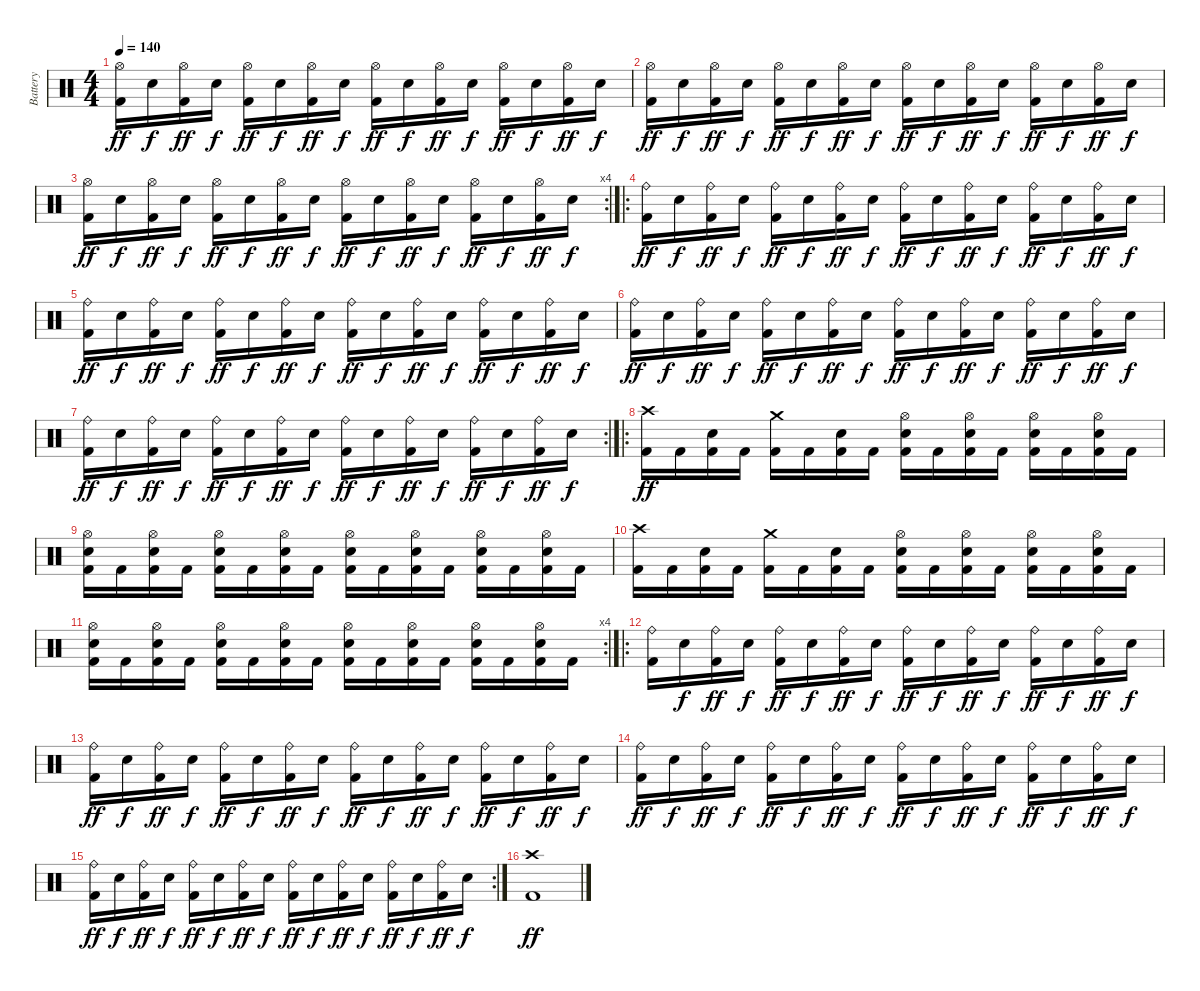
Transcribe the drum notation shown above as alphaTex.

\track ("Battery" "Battery") {instrument percussion}
\staff {score}
\articulation defaults
\ts (4 4)
\tempo 140
\clef neutral
\ks c
("Hi-Hat (open)" "Kick (hit) 2").16{dy ff} "Snare (hit) 2".16{dy f} ("Hi-Hat (open)" "Kick (hit) 2").16{dy ff} "Snare (hit) 2".16{dy f} ("Hi-Hat (open)" "Kick (hit) 2").16{dy ff} "Snare (hit) 2".16{dy f} ("Hi-Hat (open)" "Kick (hit) 2").16{dy ff} "Snare (hit) 2".16{dy f} ("Hi-Hat (open)" "Kick (hit) 2").16{dy ff} "Snare (hit) 2".16{dy f} ("Hi-Hat (open)" "Kick (hit) 2").16{dy ff} "Snare (hit) 2".16{dy f} ("Hi-Hat (open)" "Kick (hit) 2").16{dy ff} "Snare (hit) 2".16{dy f} ("Hi-Hat (open)" "Kick (hit) 2").16{dy ff} "Snare (hit) 2".16{dy f} |
("Hi-Hat (open)" "Kick (hit) 2").16{dy ff} "Snare (hit) 2".16{dy f} ("Hi-Hat (open)" "Kick (hit) 2").16{dy ff} "Snare (hit) 2".16{dy f} ("Hi-Hat (open)" "Kick (hit) 2").16{dy ff} "Snare (hit) 2".16{dy f} ("Hi-Hat (open)" "Kick (hit) 2").16{dy ff} "Snare (hit) 2".16{dy f} ("Hi-Hat (open)" "Kick (hit) 2").16{dy ff} "Snare (hit) 2".16{dy f} ("Hi-Hat (open)" "Kick (hit) 2").16{dy ff} "Snare (hit) 2".16{dy f} ("Hi-Hat (open)" "Kick (hit) 2").16{dy ff} "Snare (hit) 2".16{dy f} ("Hi-Hat (open)" "Kick (hit) 2").16{dy ff} "Snare (hit) 2".16{dy f} |
\rc 4
("Hi-Hat (open)" "Kick (hit) 2").16{dy ff} "Snare (hit) 2".16{dy f} ("Hi-Hat (open)" "Kick (hit) 2").16{dy ff} "Snare (hit) 2".16{dy f} ("Hi-Hat (open)" "Kick (hit) 2").16{dy ff} "Snare (hit) 2".16{dy f} ("Hi-Hat (open)" "Kick (hit) 2").16{dy ff} "Snare (hit) 2".16{dy f} ("Hi-Hat (open)" "Kick (hit) 2").16{dy ff} "Snare (hit) 2".16{dy f} ("Hi-Hat (open)" "Kick (hit) 2").16{dy ff} "Snare (hit) 2".16{dy f} ("Hi-Hat (open)" "Kick (hit) 2").16{dy ff} "Snare (hit) 2".16{dy f} ("Hi-Hat (open)" "Kick (hit) 2").16{dy ff} "Snare (hit) 2".16{dy f} |
\ro
("Ride (bell)" "Kick (hit) 2").16{dy ff} "Snare (hit) 2".16{dy f} ("Ride (bell)" "Kick (hit) 2").16{dy ff} "Snare (hit) 2".16{dy f} ("Ride (bell)" "Kick (hit) 2").16{dy ff} "Snare (hit) 2".16{dy f} ("Ride (bell)" "Kick (hit) 2").16{dy ff} "Snare (hit) 2".16{dy f} ("Ride (bell)" "Kick (hit) 2").16{dy ff} "Snare (hit) 2".16{dy f} ("Ride (bell)" "Kick (hit) 2").16{dy ff} "Snare (hit) 2".16{dy f} ("Ride (bell)" "Kick (hit) 2").16{dy ff} "Snare (hit) 2".16{dy f} ("Ride (bell)" "Kick (hit) 2").16{dy ff} "Snare (hit) 2".16{dy f} |
("Ride (bell)" "Kick (hit) 2").16{dy ff} "Snare (hit) 2".16{dy f} ("Ride (bell)" "Kick (hit) 2").16{dy ff} "Snare (hit) 2".16{dy f} ("Ride (bell)" "Kick (hit) 2").16{dy ff} "Snare (hit) 2".16{dy f} ("Ride (bell)" "Kick (hit) 2").16{dy ff} "Snare (hit) 2".16{dy f} ("Ride (bell)" "Kick (hit) 2").16{dy ff} "Snare (hit) 2".16{dy f} ("Ride (bell)" "Kick (hit) 2").16{dy ff} "Snare (hit) 2".16{dy f} ("Ride (bell)" "Kick (hit) 2").16{dy ff} "Snare (hit) 2".16{dy f} ("Ride (bell)" "Kick (hit) 2").16{dy ff} "Snare (hit) 2".16{dy f} |
("Ride (bell)" "Kick (hit) 2").16{dy ff} "Snare (hit) 2".16{dy f} ("Ride (bell)" "Kick (hit) 2").16{dy ff} "Snare (hit) 2".16{dy f} ("Ride (bell)" "Kick (hit) 2").16{dy ff} "Snare (hit) 2".16{dy f} ("Ride (bell)" "Kick (hit) 2").16{dy ff} "Snare (hit) 2".16{dy f} ("Ride (bell)" "Kick (hit) 2").16{dy ff} "Snare (hit) 2".16{dy f} ("Ride (bell)" "Kick (hit) 2").16{dy ff} "Snare (hit) 2".16{dy f} ("Ride (bell)" "Kick (hit) 2").16{dy ff} "Snare (hit) 2".16{dy f} ("Ride (bell)" "Kick (hit) 2").16{dy ff} "Snare (hit) 2".16{dy f} |
\rc 2
("Ride (bell)" "Kick (hit) 2").16{dy ff} "Snare (hit) 2".16{dy f} ("Ride (bell)" "Kick (hit) 2").16{dy ff} "Snare (hit) 2".16{dy f} ("Ride (bell)" "Kick (hit) 2").16{dy ff} "Snare (hit) 2".16{dy f} ("Ride (bell)" "Kick (hit) 2").16{dy ff} "Snare (hit) 2".16{dy f} ("Ride (bell)" "Kick (hit) 2").16{dy ff} "Snare (hit) 2".16{dy f} ("Ride (bell)" "Kick (hit) 2").16{dy ff} "Snare (hit) 2".16{dy f} ("Ride (bell)" "Kick (hit) 2").16{dy ff} "Snare (hit) 2".16{dy f} ("Ride (bell)" "Kick (hit) 2").16{dy ff} "Snare (hit) 2".16{dy f} |
\ro
("Crash high (hit)" "Kick (hit) 2").16{dy ff} "Kick (hit) 2".16 ("Snare (hit) 2" "Kick (hit) 2").16 "Kick (hit) 2".16 ("Crash medium (hit)" "Kick (hit) 2").16 "Kick (hit) 2".16 ("Snare (hit) 2" "Kick (hit) 2").16 "Kick (hit) 2".16 ("Hi-Hat (open)" "Snare (hit) 2" "Kick (hit) 2").16 "Kick (hit) 2".16 ("Hi-Hat (open)" "Snare (hit) 2" "Kick (hit) 2").16 "Kick (hit) 2".16 ("Hi-Hat (open)" "Snare (hit) 2" "Kick (hit) 2").16 "Kick (hit) 2".16 ("Hi-Hat (open)" "Snare (hit) 2" "Kick (hit) 2").16 "Kick (hit) 2".16 |
("Hi-Hat (open)" "Snare (hit) 2" "Kick (hit) 2").16 "Kick (hit) 2".16 ("Hi-Hat (open)" "Snare (hit) 2" "Kick (hit) 2").16 "Kick (hit) 2".16 ("Hi-Hat (open)" "Snare (hit) 2" "Kick (hit) 2").16 "Kick (hit) 2".16 ("Hi-Hat (open)" "Snare (hit) 2" "Kick (hit) 2").16 "Kick (hit) 2".16 ("Hi-Hat (open)" "Snare (hit) 2" "Kick (hit) 2").16 "Kick (hit) 2".16 ("Hi-Hat (open)" "Snare (hit) 2" "Kick (hit) 2").16 "Kick (hit) 2".16 ("Hi-Hat (open)" "Snare (hit) 2" "Kick (hit) 2").16 "Kick (hit) 2".16 ("Hi-Hat (open)" "Snare (hit) 2" "Kick (hit) 2").16 "Kick (hit) 2".16 |
("Crash high (hit)" "Kick (hit) 2").16 "Kick (hit) 2".16 ("Snare (hit) 2" "Kick (hit) 2").16 "Kick (hit) 2".16 ("Crash medium (hit)" "Kick (hit) 2").16 "Kick (hit) 2".16 ("Snare (hit) 2" "Kick (hit) 2").16 "Kick (hit) 2".16 ("Hi-Hat (open)" "Snare (hit) 2" "Kick (hit) 2").16 "Kick (hit) 2".16 ("Hi-Hat (open)" "Snare (hit) 2" "Kick (hit) 2").16 "Kick (hit) 2".16 ("Hi-Hat (open)" "Snare (hit) 2" "Kick (hit) 2").16 "Kick (hit) 2".16 ("Hi-Hat (open)" "Snare (hit) 2" "Kick (hit) 2").16 "Kick (hit) 2".16 |
\rc 4
("Hi-Hat (open)" "Snare (hit) 2" "Kick (hit) 2").16 "Kick (hit) 2".16 ("Hi-Hat (open)" "Snare (hit) 2" "Kick (hit) 2").16 "Kick (hit) 2".16 ("Hi-Hat (open)" "Snare (hit) 2" "Kick (hit) 2").16 "Kick (hit) 2".16 ("Hi-Hat (open)" "Snare (hit) 2" "Kick (hit) 2").16 "Kick (hit) 2".16 ("Hi-Hat (open)" "Snare (hit) 2" "Kick (hit) 2").16 "Kick (hit) 2".16 ("Hi-Hat (open)" "Snare (hit) 2" "Kick (hit) 2").16 "Kick (hit) 2".16 ("Hi-Hat (open)" "Snare (hit) 2" "Kick (hit) 2").16 "Kick (hit) 2".16 ("Hi-Hat (open)" "Snare (hit) 2" "Kick (hit) 2").16 "Kick (hit) 2".16 |
\ro
("Ride (bell)" "Kick (hit) 2").16 "Snare (hit) 2".16{dy f} ("Ride (bell)" "Kick (hit) 2").16{dy ff} "Snare (hit) 2".16{dy f} ("Ride (bell)" "Kick (hit) 2").16{dy ff} "Snare (hit) 2".16{dy f} ("Ride (bell)" "Kick (hit) 2").16{dy ff} "Snare (hit) 2".16{dy f} ("Ride (bell)" "Kick (hit) 2").16{dy ff} "Snare (hit) 2".16{dy f} ("Ride (bell)" "Kick (hit) 2").16{dy ff} "Snare (hit) 2".16{dy f} ("Ride (bell)" "Kick (hit) 2").16{dy ff} "Snare (hit) 2".16{dy f} ("Ride (bell)" "Kick (hit) 2").16{dy ff} "Snare (hit) 2".16{dy f} |
("Ride (bell)" "Kick (hit) 2").16{dy ff} "Snare (hit) 2".16{dy f} ("Ride (bell)" "Kick (hit) 2").16{dy ff} "Snare (hit) 2".16{dy f} ("Ride (bell)" "Kick (hit) 2").16{dy ff} "Snare (hit) 2".16{dy f} ("Ride (bell)" "Kick (hit) 2").16{dy ff} "Snare (hit) 2".16{dy f} ("Ride (bell)" "Kick (hit) 2").16{dy ff} "Snare (hit) 2".16{dy f} ("Ride (bell)" "Kick (hit) 2").16{dy ff} "Snare (hit) 2".16{dy f} ("Ride (bell)" "Kick (hit) 2").16{dy ff} "Snare (hit) 2".16{dy f} ("Ride (bell)" "Kick (hit) 2").16{dy ff} "Snare (hit) 2".16{dy f} |
("Ride (bell)" "Kick (hit) 2").16{dy ff} "Snare (hit) 2".16{dy f} ("Ride (bell)" "Kick (hit) 2").16{dy ff} "Snare (hit) 2".16{dy f} ("Ride (bell)" "Kick (hit) 2").16{dy ff} "Snare (hit) 2".16{dy f} ("Ride (bell)" "Kick (hit) 2").16{dy ff} "Snare (hit) 2".16{dy f} ("Ride (bell)" "Kick (hit) 2").16{dy ff} "Snare (hit) 2".16{dy f} ("Ride (bell)" "Kick (hit) 2").16{dy ff} "Snare (hit) 2".16{dy f} ("Ride (bell)" "Kick (hit) 2").16{dy ff} "Snare (hit) 2".16{dy f} ("Ride (bell)" "Kick (hit) 2").16{dy ff} "Snare (hit) 2".16{dy f} |
\rc 2
("Ride (bell)" "Kick (hit) 2").16{dy ff} "Snare (hit) 2".16{dy f} ("Ride (bell)" "Kick (hit) 2").16{dy ff} "Snare (hit) 2".16{dy f} ("Ride (bell)" "Kick (hit) 2").16{dy ff} "Snare (hit) 2".16{dy f} ("Ride (bell)" "Kick (hit) 2").16{dy ff} "Snare (hit) 2".16{dy f} ("Ride (bell)" "Kick (hit) 2").16{dy ff} "Snare (hit) 2".16{dy f} ("Ride (bell)" "Kick (hit) 2").16{dy ff} "Snare (hit) 2".16{dy f} ("Ride (bell)" "Kick (hit) 2").16{dy ff} "Snare (hit) 2".16{dy f} ("Ride (bell)" "Kick (hit) 2").16{dy ff} "Snare (hit) 2".16{dy f} |
("Crash high (hit)" "Kick (hit) 2").1{dy ff}
